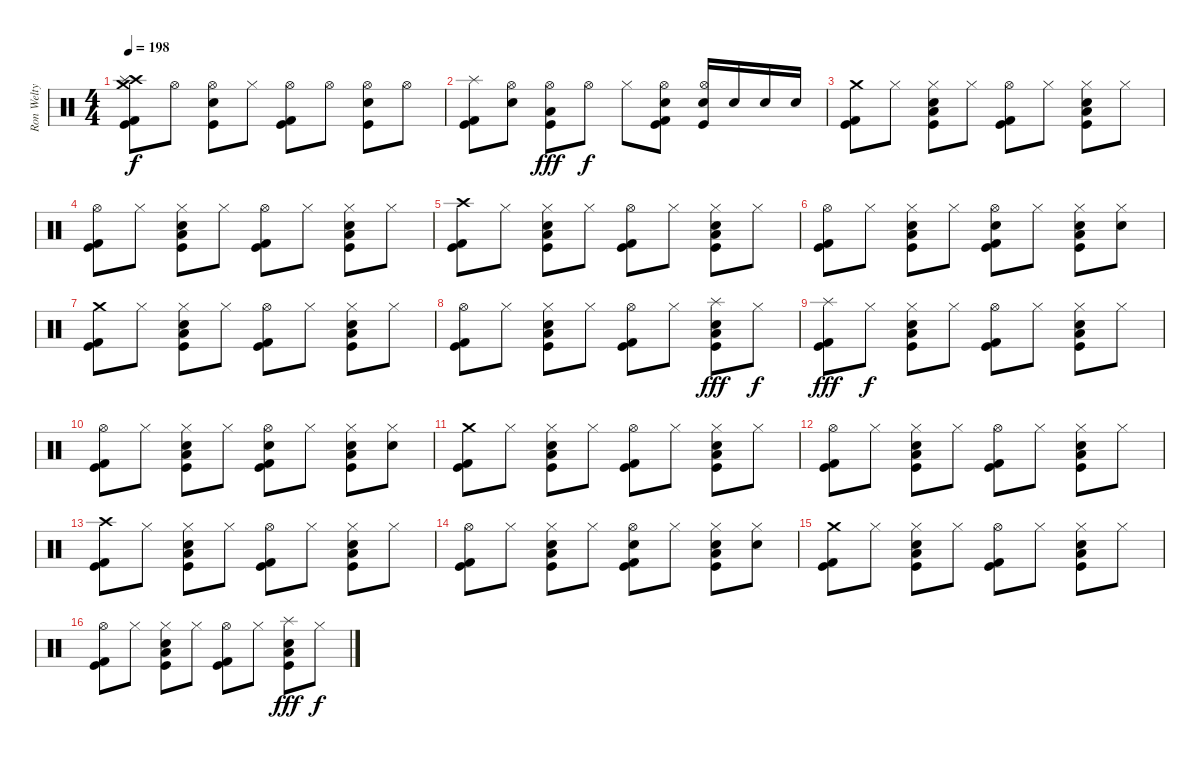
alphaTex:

\track ("Ron Welty" "Ron Welty") {instrument percussion}
\staff {score}
\articulation defaults
\ts (4 4)
\tempo 198
\clef neutral
\ks c
("Crash medium (hit)" "Crash high (hit)" "Splash (hit)" "Kick (hit) 2" "Kick (hit)").8{dy f} "Hi-Hat (open)".8 ("Hi-Hat (open)" "Electric Snare (hit)" "Kick (hit)").8 "Hi-Hat (closed)".8 ("Hi-Hat (open)" "Kick (hit) 2" "Kick (hit)").8 "Hi-Hat (open)".8 ("Hi-Hat (open)" "Electric Snare (hit)" "Kick (hit)").8 "Hi-Hat (open)".8 |
("Splash (hit)" "Kick (hit) 2" "Kick (hit)").8 ("Hi-Hat (open)" "Electric Snare (hit)").8 ("Hi-Hat (open)" "Low Tom (hit)" "Kick (hit)").8{dy fff} "Hi-Hat (open)".8{dy f} "Hi-Hat (closed)".8 ("Hi-Hat (open)" "Electric Snare (hit)" "Kick (hit) 2" "Kick (hit)").8 ("Hi-Hat (open)" "Electric Snare (hit)" "Kick (hit)").16 "Electric Snare (hit)".16 "Electric Snare (hit)".16 "Electric Snare (hit)".16 |
("Crash medium (hit)" "Kick (hit) 2" "Kick (hit)").8 "Hi-Hat (closed)".8 ("Hi-Hat (closed)" "Electric Snare (hit)" "Low Tom (hit)" "Kick (hit)").8 "Hi-Hat (closed)".8 ("Hi-Hat (open)" "Kick (hit) 2" "Kick (hit)").8 "Hi-Hat (closed)".8 ("Hi-Hat (closed)" "Electric Snare (hit)" "Low Tom (hit)" "Kick (hit)").8 "Hi-Hat (closed)".8 |
("Hi-Hat (open)" "Kick (hit) 2" "Kick (hit)").8 "Hi-Hat (closed)".8 ("Hi-Hat (closed)" "Electric Snare (hit)" "Low Tom (hit)" "Kick (hit)").8 "Hi-Hat (closed)".8 ("Hi-Hat (open)" "Kick (hit) 2" "Kick (hit)").8 "Hi-Hat (closed)".8 ("Hi-Hat (closed)" "Electric Snare (hit)" "Low Tom (hit)" "Kick (hit)").8 "Hi-Hat (closed)".8 |
("Crash high (hit)" "Kick (hit) 2" "Kick (hit)").8 "Hi-Hat (closed)".8 ("Hi-Hat (closed)" "Electric Snare (hit)" "Low Tom (hit)" "Kick (hit)").8 "Hi-Hat (closed)".8 ("Hi-Hat (open)" "Kick (hit) 2" "Kick (hit)").8 "Hi-Hat (closed)".8 ("Hi-Hat (closed)" "Electric Snare (hit)" "Low Tom (hit)" "Kick (hit)").8 "Hi-Hat (closed)".8 |
("Hi-Hat (open)" "Kick (hit) 2" "Kick (hit)").8 "Hi-Hat (closed)".8 ("Hi-Hat (closed)" "Electric Snare (hit)" "Low Tom (hit)" "Kick (hit)").8 "Hi-Hat (closed)".8 ("Hi-Hat (open)" "Electric Snare (hit)" "Kick (hit) 2" "Kick (hit)").8 "Hi-Hat (closed)".8 ("Hi-Hat (closed)" "Electric Snare (hit)" "Low Tom (hit)" "Kick (hit)").8 ("Hi-Hat (closed)" "Electric Snare (hit)").8 |
("Crash medium (hit)" "Kick (hit) 2" "Kick (hit)").8 "Hi-Hat (closed)".8 ("Hi-Hat (closed)" "Electric Snare (hit)" "Low Tom (hit)" "Kick (hit)").8 "Hi-Hat (closed)".8 ("Hi-Hat (open)" "Kick (hit) 2" "Kick (hit)").8 "Hi-Hat (closed)".8 ("Hi-Hat (closed)" "Electric Snare (hit)" "Low Tom (hit)" "Kick (hit)").8 "Hi-Hat (closed)".8 |
("Hi-Hat (open)" "Kick (hit) 2" "Kick (hit)").8 "Hi-Hat (closed)".8 ("Hi-Hat (closed)" "Electric Snare (hit)" "Low Tom (hit)" "Kick (hit)").8 "Hi-Hat (closed)".8 ("Hi-Hat (open)" "Kick (hit) 2" "Kick (hit)").8 "Hi-Hat (closed)".8 ("Splash (hit)" "Electric Snare (hit)" "Low Tom (hit)" "Kick (hit)").8{dy fff} "Hi-Hat (closed)".8{dy f} |
("Splash (hit)" "Kick (hit) 2" "Kick (hit)").8{dy fff} "Hi-Hat (closed)".8{dy f} ("Hi-Hat (closed)" "Electric Snare (hit)" "Low Tom (hit)" "Kick (hit)").8 "Hi-Hat (closed)".8 ("Hi-Hat (open)" "Kick (hit) 2" "Kick (hit)").8 "Hi-Hat (closed)".8 ("Hi-Hat (closed)" "Electric Snare (hit)" "Low Tom (hit)" "Kick (hit)").8 "Hi-Hat (closed)".8 |
("Hi-Hat (open)" "Kick (hit) 2" "Kick (hit)").8 "Hi-Hat (closed)".8 ("Hi-Hat (closed)" "Electric Snare (hit)" "Low Tom (hit)" "Kick (hit)").8 "Hi-Hat (closed)".8 ("Hi-Hat (open)" "Electric Snare (hit)" "Kick (hit) 2" "Kick (hit)").8 "Hi-Hat (closed)".8 ("Hi-Hat (closed)" "Electric Snare (hit)" "Low Tom (hit)" "Kick (hit)").8 ("Hi-Hat (closed)" "Electric Snare (hit)").8 |
("Crash medium (hit)" "Kick (hit) 2" "Kick (hit)").8 "Hi-Hat (closed)".8 ("Hi-Hat (closed)" "Electric Snare (hit)" "Low Tom (hit)" "Kick (hit)").8 "Hi-Hat (closed)".8 ("Hi-Hat (open)" "Kick (hit) 2" "Kick (hit)").8 "Hi-Hat (closed)".8 ("Hi-Hat (closed)" "Electric Snare (hit)" "Low Tom (hit)" "Kick (hit)").8 "Hi-Hat (closed)".8 |
("Hi-Hat (open)" "Kick (hit) 2" "Kick (hit)").8 "Hi-Hat (closed)".8 ("Hi-Hat (closed)" "Electric Snare (hit)" "Low Tom (hit)" "Kick (hit)").8 "Hi-Hat (closed)".8 ("Hi-Hat (open)" "Kick (hit) 2" "Kick (hit)").8 "Hi-Hat (closed)".8 ("Hi-Hat (closed)" "Electric Snare (hit)" "Low Tom (hit)" "Kick (hit)").8 "Hi-Hat (closed)".8 |
("Crash high (hit)" "Kick (hit) 2" "Kick (hit)").8 "Hi-Hat (closed)".8 ("Hi-Hat (closed)" "Electric Snare (hit)" "Low Tom (hit)" "Kick (hit)").8 "Hi-Hat (closed)".8 ("Hi-Hat (open)" "Kick (hit) 2" "Kick (hit)").8 "Hi-Hat (closed)".8 ("Hi-Hat (closed)" "Electric Snare (hit)" "Low Tom (hit)" "Kick (hit)").8 "Hi-Hat (closed)".8 |
("Hi-Hat (open)" "Kick (hit) 2" "Kick (hit)").8 "Hi-Hat (closed)".8 ("Hi-Hat (closed)" "Electric Snare (hit)" "Low Tom (hit)" "Kick (hit)").8 "Hi-Hat (closed)".8 ("Hi-Hat (open)" "Electric Snare (hit)" "Kick (hit) 2" "Kick (hit)").8 "Hi-Hat (closed)".8 ("Hi-Hat (closed)" "Electric Snare (hit)" "Low Tom (hit)" "Kick (hit)").8 ("Hi-Hat (closed)" "Electric Snare (hit)").8 |
("Crash medium (hit)" "Kick (hit) 2" "Kick (hit)").8 "Hi-Hat (closed)".8 ("Hi-Hat (closed)" "Electric Snare (hit)" "Low Tom (hit)" "Kick (hit)").8 "Hi-Hat (closed)".8 ("Hi-Hat (open)" "Kick (hit) 2" "Kick (hit)").8 "Hi-Hat (closed)".8 ("Hi-Hat (closed)" "Electric Snare (hit)" "Low Tom (hit)" "Kick (hit)").8 "Hi-Hat (closed)".8 |
("Hi-Hat (open)" "Kick (hit) 2" "Kick (hit)").8 "Hi-Hat (closed)".8 ("Hi-Hat (closed)" "Electric Snare (hit)" "Low Tom (hit)" "Kick (hit)").8 "Hi-Hat (closed)".8 ("Hi-Hat (open)" "Kick (hit) 2" "Kick (hit)").8 "Hi-Hat (closed)".8 ("Splash (hit)" "Electric Snare (hit)" "Low Tom (hit)" "Kick (hit)").8{dy fff} "Hi-Hat (closed)".8{dy f}
